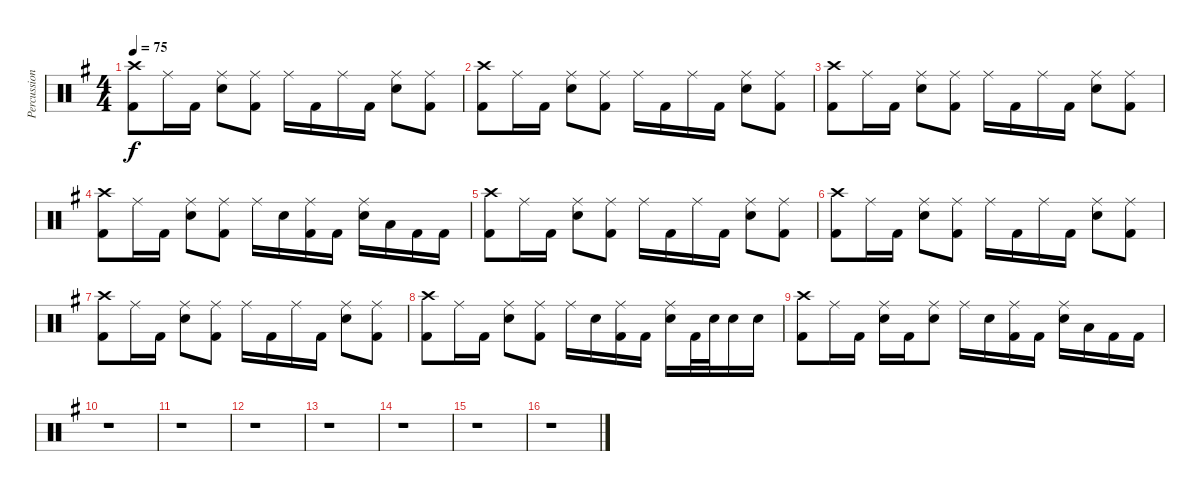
\track ("Percussion" "Percussion") {instrument percussion}
\staff {score}
\articulation defaults
\ts (4 4)
\tempo 75
\clef neutral
\ks eminor
("Crash high (hit)" "Kick (hit) 2").8{dy f} "Ride (middle)".16 "Kick (hit) 2".16 ("Ride (middle)" "Electric Snare (hit)").8 ("Ride (middle)" "Kick (hit) 2").8 "Ride (middle)".16 "Kick (hit) 2".16 "Ride (middle)".16 "Kick (hit) 2".16 ("Ride (middle)" "Electric Snare (hit)").8 ("Ride (middle)" "Kick (hit) 2").8 |
("Crash high (hit)" "Kick (hit) 2").8 "Ride (middle)".16 "Kick (hit) 2".16 ("Ride (middle)" "Electric Snare (hit)").8 ("Ride (middle)" "Kick (hit) 2").8 "Ride (middle)".16 "Kick (hit) 2".16 "Ride (middle)".16 "Kick (hit) 2".16 ("Ride (middle)" "Electric Snare (hit)").8 ("Ride (middle)" "Kick (hit) 2").8 |
("Crash high (hit)" "Kick (hit) 2").8 "Ride (middle)".16 "Kick (hit) 2".16 ("Ride (middle)" "Electric Snare (hit)").8 ("Ride (middle)" "Kick (hit) 2").8 "Ride (middle)".16 "Kick (hit) 2".16 "Ride (middle)".16 "Kick (hit) 2".16 ("Ride (middle)" "Electric Snare (hit)").8 ("Ride (middle)" "Kick (hit) 2").8 |
("Crash high (hit)" "Kick (hit) 2").8 "Ride (middle)".16 "Kick (hit) 2".16 ("Ride (middle)" "Electric Snare (hit)").8 ("Ride (middle)" "Kick (hit) 2").8 "Ride (middle)".16 "Electric Snare (hit)".16 ("Ride (middle)" "Kick (hit) 2").16 "Kick (hit) 2".16 ("Ride (middle)" "Electric Snare (hit)").16 "Low Tom (hit)".16 "Kick (hit) 2".16 "Kick (hit) 2".16 |
("Crash high (hit)" "Kick (hit) 2").8 "Ride (middle)".16 "Kick (hit) 2".16 ("Ride (middle)" "Electric Snare (hit)").8 ("Ride (middle)" "Kick (hit) 2").8 "Ride (middle)".16 "Kick (hit) 2".16 "Ride (middle)".16 "Kick (hit) 2".16 ("Ride (middle)" "Electric Snare (hit)").8 ("Ride (middle)" "Kick (hit) 2").8 |
("Crash high (hit)" "Kick (hit) 2").8 "Ride (middle)".16 "Kick (hit) 2".16 ("Ride (middle)" "Electric Snare (hit)").8 ("Ride (middle)" "Kick (hit) 2").8 "Ride (middle)".16 "Kick (hit) 2".16 "Ride (middle)".16 "Kick (hit) 2".16 ("Ride (middle)" "Electric Snare (hit)").8 ("Ride (middle)" "Kick (hit) 2").8 |
("Crash high (hit)" "Kick (hit) 2").8 "Ride (middle)".16 "Kick (hit) 2".16 ("Ride (middle)" "Electric Snare (hit)").8 ("Ride (middle)" "Kick (hit) 2").8 "Ride (middle)".16 "Kick (hit) 2".16 "Ride (middle)".16 "Kick (hit) 2".16 ("Ride (middle)" "Electric Snare (hit)").8 ("Ride (middle)" "Kick (hit) 2").8 |
("Crash high (hit)" "Kick (hit) 2").8 "Ride (middle)".16 "Kick (hit) 2".16 ("Ride (middle)" "Electric Snare (hit)").8 ("Ride (middle)" "Kick (hit) 2").8 "Ride (middle)".16 "Electric Snare (hit)".16 ("Ride (middle)" "Kick (hit) 2").16 "Kick (hit) 2".16 ("Ride (middle)" "Electric Snare (hit)").16 "Kick (hit) 2".32 "Electric Snare (hit)".32 "Electric Snare (hit)".16 "Electric Snare (hit)".16 |
("Crash high (hit)" "Kick (hit) 2").8 "Ride (middle)".16 "Kick (hit) 2".16 ("Ride (middle)" "Electric Snare (hit)").16 "Kick (hit) 2".16 ("Ride (middle)" "Electric Snare (hit)").8 "Ride (middle)".16 "Electric Snare (hit)".16 ("Ride (middle)" "Kick (hit) 2").16 "Kick (hit) 2".16 ("Ride (middle)" "Electric Snare (hit)").16 "Low Tom (hit)".16 "Kick (hit) 2".16 "Kick (hit) 2".16 |
r.1 |
r.1 |
r.1 |
r.1 |
r.1 |
r.1 |
r.1
